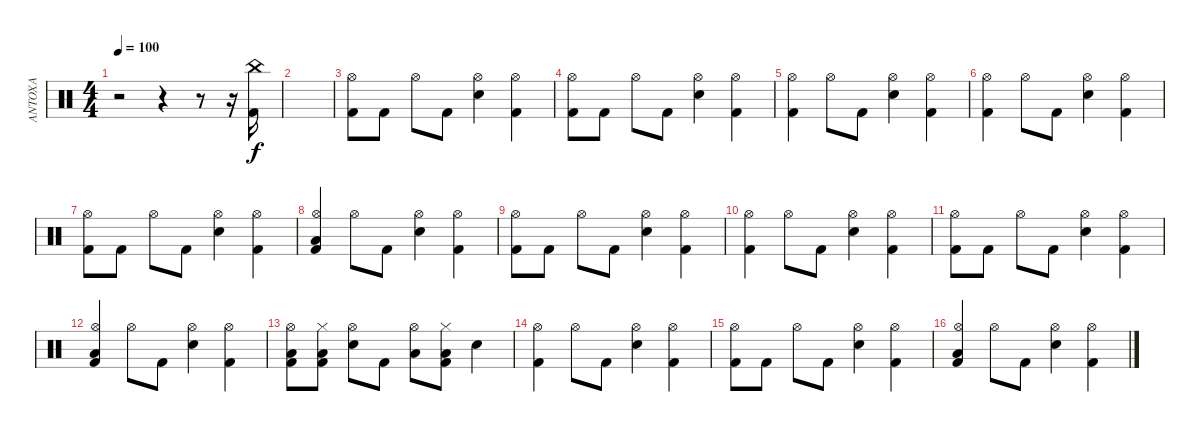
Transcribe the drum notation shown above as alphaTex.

\track ("ANTOXA" "ANTOXA") {instrument percussion}
\staff {score}
\articulation defaults
\ts (4 4)
\tempo 100
\clef neutral
\ks c
r.2{dy f} r.4 r.8 r.16 ("Kick (hit) 2" "China (hit)").16 |
|
("Kick (hit) 2" "Hi-Hat (open)").8 "Kick (hit) 2".8 "Hi-Hat (open)".8 "Kick (hit) 2".8 ("Hi-Hat (open)" "Electric Snare (hit)").4 ("Kick (hit) 2" "Hi-Hat (open)").4 |
("Kick (hit) 2" "Hi-Hat (open)").8 "Kick (hit) 2".8 "Hi-Hat (open)".8 "Kick (hit) 2".8 ("Hi-Hat (open)" "Electric Snare (hit)").4 ("Kick (hit) 2" "Hi-Hat (open)").4 |
("Kick (hit) 2" "Hi-Hat (open)").4 "Hi-Hat (open)".8 "Kick (hit) 2".8 ("Hi-Hat (open)" "Electric Snare (hit)").4 ("Kick (hit) 2" "Hi-Hat (open)").4 |
("Kick (hit) 2" "Hi-Hat (open)").4 "Hi-Hat (open)".8 "Kick (hit) 2".8 ("Hi-Hat (open)" "Electric Snare (hit)").4 ("Kick (hit) 2" "Hi-Hat (open)").4 |
("Kick (hit) 2" "Hi-Hat (open)").8 "Kick (hit) 2".8 "Hi-Hat (open)".8 "Kick (hit) 2".8 ("Hi-Hat (open)" "Electric Snare (hit)").4 ("Kick (hit) 2" "Hi-Hat (open)").4 |
("Kick (hit) 2" "Hi-Hat (open)" "Low Floor Tom (hit)").4 "Hi-Hat (open)".8 "Kick (hit) 2".8 ("Hi-Hat (open)" "Electric Snare (hit)").4 ("Kick (hit) 2" "Hi-Hat (open)").4 |
("Kick (hit) 2" "Hi-Hat (open)").8 "Kick (hit) 2".8 "Hi-Hat (open)".8 "Kick (hit) 2".8 ("Hi-Hat (open)" "Electric Snare (hit)").4 ("Kick (hit) 2" "Hi-Hat (open)").4 |
("Kick (hit) 2" "Hi-Hat (open)").4 "Hi-Hat (open)".8 "Kick (hit) 2".8 ("Hi-Hat (open)" "Electric Snare (hit)").4 ("Kick (hit) 2" "Hi-Hat (open)").4 |
("Kick (hit) 2" "Hi-Hat (open)").8 "Kick (hit) 2".8 "Hi-Hat (open)".8 "Kick (hit) 2".8 ("Hi-Hat (open)" "Electric Snare (hit)").4 ("Kick (hit) 2" "Hi-Hat (open)").4 |
("Kick (hit) 2" "Hi-Hat (open)" "Low Floor Tom (hit)").4 "Hi-Hat (open)".8 "Kick (hit) 2".8 ("Hi-Hat (open)" "Electric Snare (hit)").4 ("Kick (hit) 2" "Hi-Hat (open)").4 |
("Kick (hit) 2" "Hi-Hat (open)" "Low Floor Tom (hit)").8 ("Kick (hit) 2" "Hi-Hat (closed)" "Low Floor Tom (hit)").8 ("Hi-Hat (open)" "Electric Snare (hit)").8 "Kick (hit) 2".8 ("Hi-Hat (open)" "Low Floor Tom (hit)").8 ("Kick (hit) 2" "Hi-Hat (closed)" "Low Floor Tom (hit)").8 "Electric Snare (hit)".4 |
("Kick (hit) 2" "Hi-Hat (open)").4 "Hi-Hat (open)".8 "Kick (hit) 2".8 ("Hi-Hat (open)" "Electric Snare (hit)").4 ("Kick (hit) 2" "Hi-Hat (open)").4 |
("Kick (hit) 2" "Hi-Hat (open)").8 "Kick (hit) 2".8 "Hi-Hat (open)".8 "Kick (hit) 2".8 ("Hi-Hat (open)" "Electric Snare (hit)").4 ("Kick (hit) 2" "Hi-Hat (open)").4 |
("Kick (hit) 2" "Hi-Hat (open)" "Low Floor Tom (hit)").4 "Hi-Hat (open)".8 "Kick (hit) 2".8 ("Hi-Hat (open)" "Electric Snare (hit)").4 ("Kick (hit) 2" "Hi-Hat (open)").4
